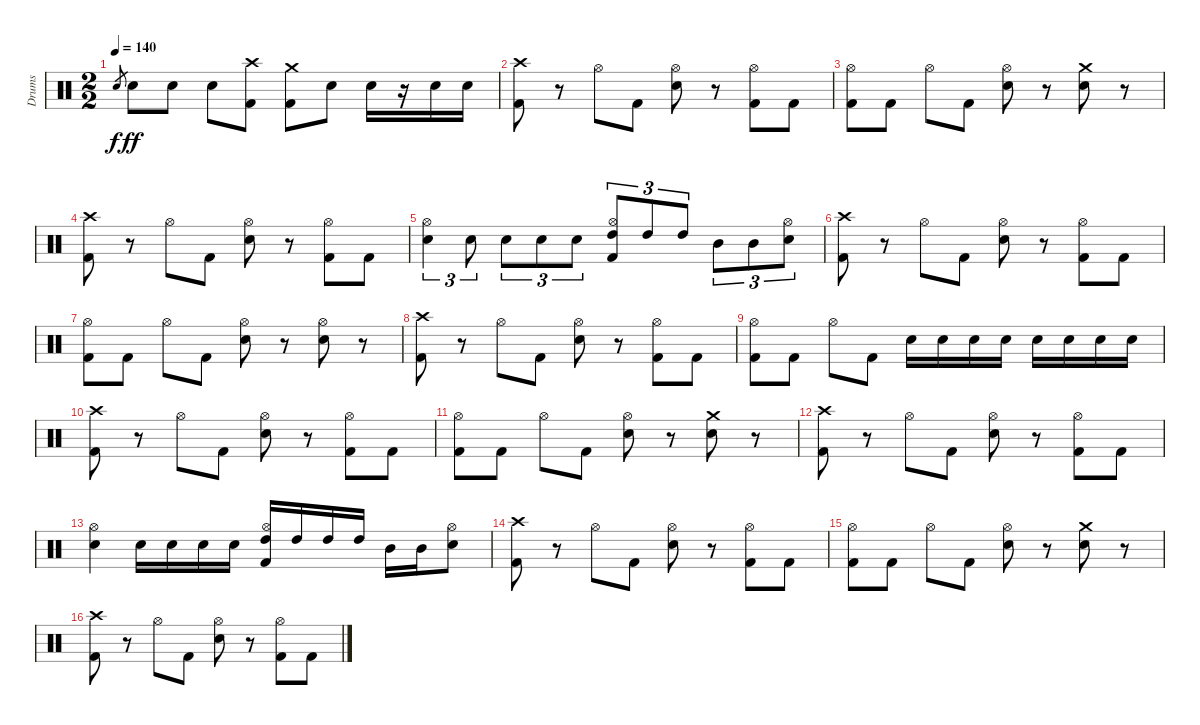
\track ("Drums" "Drums") {instrument percussion}
\staff {score}
\articulation defaults
\ts (2 2)
\tempo 140
\clef neutral
\ks c "Snare (hit) 2".8{gr dy f} "Snare (hit) 2".8{dy ff} "Snare (hit) 2".8 "Snare (hit) 2".8
("Crash high (hit)" "Kick (hit) 2").8 ("Crash medium (hit)" "Kick (hit) 2").8 "Snare (hit) 2".8 "Snare (hit) 2".16 r.16 "Snare (hit) 2".16 "Snare (hit) 2".16 |
("Crash high (hit)" "Kick (hit) 2").8 r.8 "Hi-Hat (open)".8 "Kick (hit) 2".8 ("Hi-Hat (open)" "Snare (hit) 2").8 r.8 ("Hi-Hat (open)" "Kick (hit) 2").8 "Kick (hit) 2".8 |
("Hi-Hat (open)" "Kick (hit) 2").8 "Kick (hit) 2".8 "Hi-Hat (open)".8 "Kick (hit) 2".8 ("Hi-Hat (open)" "Snare (hit) 2").8 r.8 ("Crash medium (hit)" "Snare (hit) 2").8 r.8 |
("Crash high (hit)" "Kick (hit) 2").8 r.8 "Hi-Hat (open)".8 "Kick (hit) 2".8 ("Hi-Hat (open)" "Snare (hit) 2").8 r.8 ("Hi-Hat (open)" "Kick (hit) 2").8 "Kick (hit) 2".8 |
("Hi-Hat (open)" "Snare (hit) 2").4{tu (3 2)} "Snare (hit) 2".8{tu (3 2)} "Snare (hit) 2".8{tu (3 2)} "Snare (hit) 2".8{tu (3 2)} "Snare (hit) 2".8{tu (3 2)} ("Hi-Hat (open)" "High Tom (hit)" "Kick (hit) 2").8{tu (3 2)} "High Tom (hit)".8{tu (3 2)} "High Tom (hit)".8{tu (3 2)} "Mid Tom (hit)".8{tu (3 2)} "Mid Tom (hit)".8{tu (3 2)} ("Hi-Hat (open)" "Snare (hit) 2").8{tu (3 2)} |
("Crash high (hit)" "Kick (hit) 2").8 r.8 "Hi-Hat (open)".8 "Kick (hit) 2".8 ("Hi-Hat (open)" "Snare (hit) 2").8 r.8 ("Hi-Hat (open)" "Kick (hit) 2").8 "Kick (hit) 2".8 |
("Hi-Hat (open)" "Kick (hit) 2").8 "Kick (hit) 2".8 "Hi-Hat (open)".8 "Kick (hit) 2".8 ("Hi-Hat (open)" "Snare (hit) 2").8 r.8 ("Hi-Hat (open)" "Snare (hit) 2").8 r.8 |
("Crash high (hit)" "Kick (hit) 2").8 r.8 "Hi-Hat (open)".8 "Kick (hit) 2".8 ("Hi-Hat (open)" "Snare (hit) 2").8 r.8 ("Hi-Hat (open)" "Kick (hit) 2").8 "Kick (hit) 2".8 |
("Hi-Hat (open)" "Kick (hit) 2").8 "Kick (hit) 2".8 "Hi-Hat (open)".8 "Kick (hit) 2".8 "Snare (hit) 2".16 "Snare (hit) 2".16 "Snare (hit) 2".16 "Snare (hit) 2".16 "Snare (hit) 2".16 "Snare (hit) 2".16 "Snare (hit) 2".16 "Snare (hit) 2".16 |
("Crash high (hit)" "Kick (hit) 2").8 r.8 "Hi-Hat (open)".8 "Kick (hit) 2".8 ("Hi-Hat (open)" "Snare (hit) 2").8 r.8 ("Hi-Hat (open)" "Kick (hit) 2").8 "Kick (hit) 2".8 |
("Hi-Hat (open)" "Kick (hit) 2").8 "Kick (hit) 2".8 "Hi-Hat (open)".8 "Kick (hit) 2".8 ("Hi-Hat (open)" "Snare (hit) 2").8 r.8 ("Crash medium (hit)" "Snare (hit) 2").8 r.8 |
("Crash high (hit)" "Kick (hit) 2").8{volume 0} r.8 "Hi-Hat (open)".8 "Kick (hit) 2".8 ("Hi-Hat (open)" "Snare (hit) 2").8 r.8 ("Hi-Hat (open)" "Kick (hit) 2").8 "Kick (hit) 2".8 |
("Hi-Hat (open)" "Snare (hit) 2").4 "Snare (hit) 2".16 "Snare (hit) 2".16 "Snare (hit) 2".16 "Snare (hit) 2".16 ("Hi-Hat (open)" "High Tom (hit)" "Kick (hit) 2").16 "High Tom (hit)".16 "High Tom (hit)".16 "High Tom (hit)".16 "Mid Tom (hit)".16 "Mid Tom (hit)".16 ("Hi-Hat (open)" "Snare (hit) 2").8 |
("Crash high (hit)" "Kick (hit) 2").8 r.8 "Hi-Hat (open)".8 "Kick (hit) 2".8 ("Hi-Hat (open)" "Snare (hit) 2").8 r.8 ("Hi-Hat (open)" "Kick (hit) 2").8 "Kick (hit) 2".8 |
("Hi-Hat (open)" "Kick (hit) 2").8 "Kick (hit) 2".8 "Hi-Hat (open)".8 "Kick (hit) 2".8 ("Hi-Hat (open)" "Snare (hit) 2").8 r.8 ("Crash medium (hit)" "Snare (hit) 2").8 r.8 |
("Crash high (hit)" "Kick (hit) 2").8 r.8 "Hi-Hat (open)".8 "Kick (hit) 2".8 ("Hi-Hat (open)" "Snare (hit) 2").8 r.8 ("Hi-Hat (open)" "Kick (hit) 2").8 "Kick (hit) 2".8
